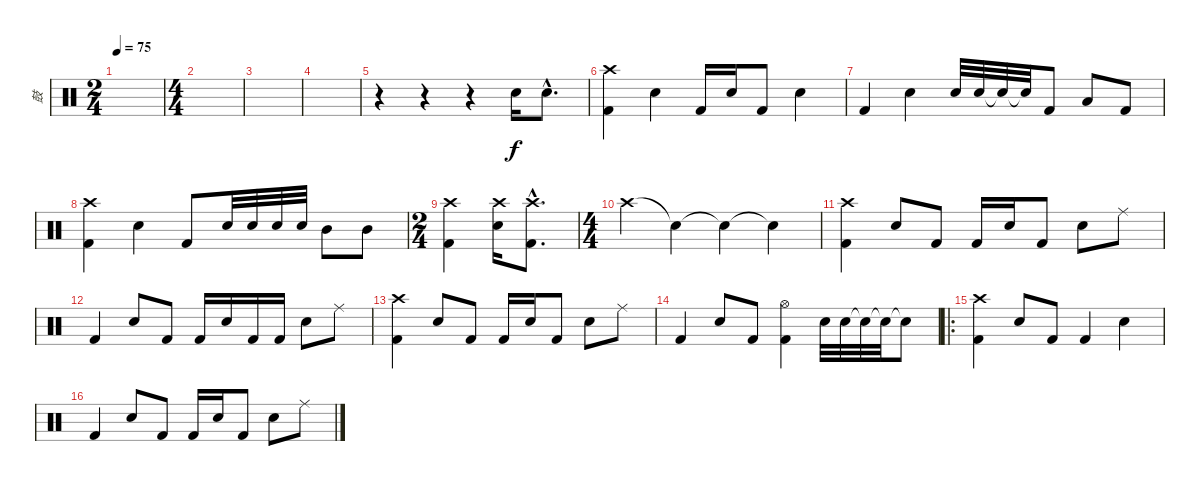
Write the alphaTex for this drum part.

\track ("鼓" "鼓") {instrument percussion}
\staff {score}
\articulation defaults
\ts (2 4)
\tempo 75
\clef neutral
\ks c
|
\ts (4 4)
|
|
|
r.4 r.4 r.4 "Snare (hit) 2".16 "Snare (hit) 2"{hac}.8{d} |
("Crash high (hit)" "Kick (hit) 2").4 "Snare (hit) 2".4 "Kick (hit) 2".16 "Snare (hit) 2".16 "Kick (hit) 2".8 "Snare (hit) 2".4 |
"Kick (hit) 2".4 "Snare (hit) 2".4 "Snare (hit) 2".32 "Snare (hit) 2".32 "Snare (hit) 2"{t}.32 "Snare (hit)"{t}.32 "Kick (hit) 2".8 "Low Tom (hit)".8 "Kick (hit) 2".8 |
("Crash high (hit)" "Kick (hit) 2").4 "Snare (hit) 2".4 "Kick (hit) 2".8 "Snare (hit) 2".32 "Snare (hit) 2".32 "Snare (hit) 2".32 "Snare (hit) 2".32 "Mid Tom (hit)".8 "Mid Tom (hit)".8 |
\ts (2 4)
("Crash high (hit)" "Kick (hit) 2").4 ("Crash high (hit)" "Snare (hit) 2").16 ("Crash high (hit)"{hac} "Kick (hit) 2"{hac}).8{d} |
\ts (4 4)
"Crash high (hit)".4 "Snare (hit)"{t}.4 "Snare (hit)"{t}.4 "Snare (hit)"{t}.4 |
("Crash high (hit)" "Kick (hit) 2").4 "Snare (hit) 2".8 "Kick (hit) 2".8 "Kick (hit) 2".16 "Snare (hit) 2".16 "Kick (hit) 2".8 "Snare (hit) 2".8 "Ride (middle)".8 |
"Kick (hit) 2".4 "Snare (hit) 2".8 "Kick (hit) 2".8 "Kick (hit) 2".16 "Snare (hit) 2".16 "Kick (hit) 2".16 "Kick (hit) 2".16 "Snare (hit) 2".8 "Ride (middle)".8 |
("Crash high (hit)" "Kick (hit) 2").4 "Snare (hit) 2".8 "Kick (hit) 2".8 "Kick (hit) 2".16 "Snare (hit) 2".16 "Kick (hit) 2".8 "Snare (hit) 2".8 "Ride (middle)".8 |
"Kick (hit) 2".4 "Snare (hit) 2".8 "Kick (hit) 2".8 ("Hi-Hat (open)" "Kick (hit) 2").4 "Snare (hit) 2".32 "Snare (hit) 2".32 "Snare (hit)"{t}.32 "Snare (hit)"{t}.32 "Snare (hit)"{t}.8 |
\ro
("Crash high (hit)" "Kick (hit) 2").4 "Snare (hit) 2".8 "Kick (hit) 2".8 "Kick (hit) 2".4 "Snare (hit) 2".4 |
"Kick (hit) 2".4 "Snare (hit) 2".8 "Kick (hit) 2".8 "Kick (hit) 2".16 "Snare (hit) 2".16 "Kick (hit) 2".8 "Snare (hit) 2".8 "Ride (middle)".8
